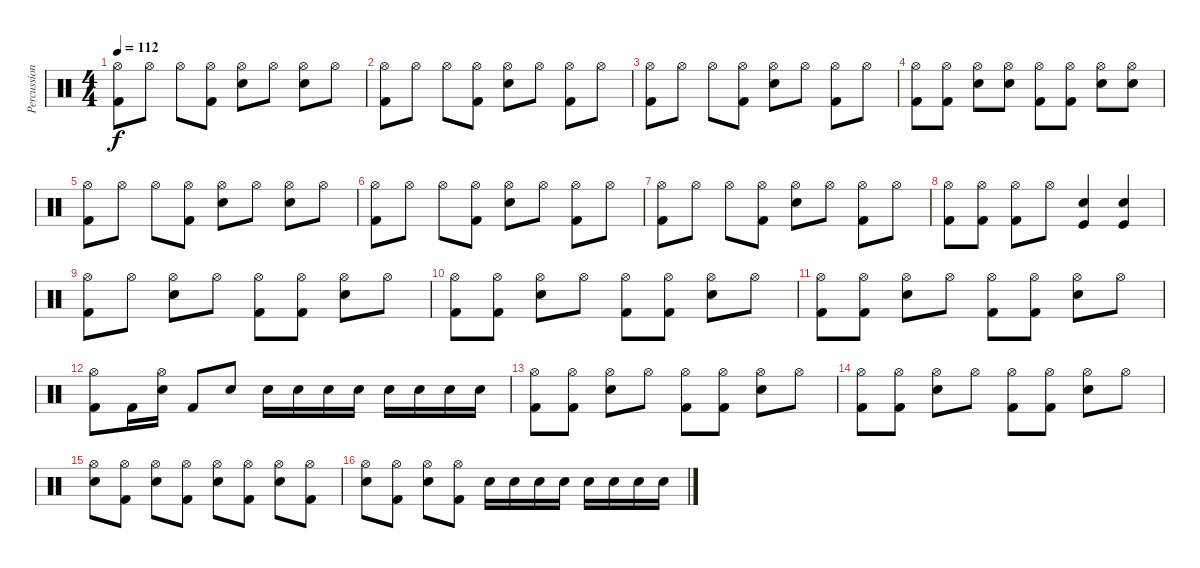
\track ("Percussion" "Percussion") {instrument percussion}
\staff {score}
\articulation defaults
\ts (4 4)
\tempo 112
\clef neutral
\ks c
("Hi-Hat (open)" "Kick (hit) 2").8{dy f} "Hi-Hat (open)".8 "Hi-Hat (open)".8 ("Hi-Hat (open)" "Kick (hit) 2").8 ("Hi-Hat (open)" "Snare (hit) 2").8 "Hi-Hat (open)".8 ("Hi-Hat (open)" "Snare (hit) 2").8 "Hi-Hat (open)".8 |
("Hi-Hat (open)" "Kick (hit) 2").8 "Hi-Hat (open)".8 "Hi-Hat (open)".8 ("Hi-Hat (open)" "Kick (hit) 2").8 ("Hi-Hat (open)" "Snare (hit) 2").8 "Hi-Hat (open)".8 ("Hi-Hat (open)" "Kick (hit) 2").8 "Hi-Hat (open)".8 |
("Hi-Hat (open)" "Kick (hit) 2").8 "Hi-Hat (open)".8 "Hi-Hat (open)".8 ("Hi-Hat (open)" "Kick (hit) 2").8 ("Hi-Hat (open)" "Snare (hit) 2").8 "Hi-Hat (open)".8 ("Hi-Hat (open)" "Kick (hit) 2").8 "Hi-Hat (open)".8 |
("Hi-Hat (open)" "Kick (hit) 2").8 ("Hi-Hat (open)" "Kick (hit) 2").8 ("Hi-Hat (open)" "Snare (hit) 2").8 ("Hi-Hat (open)" "Snare (hit) 2").8 ("Hi-Hat (open)" "Kick (hit) 2").8 ("Hi-Hat (open)" "Kick (hit) 2").8 ("Hi-Hat (open)" "Snare (hit) 2").8 ("Hi-Hat (open)" "Snare (hit) 2").8 |
("Hi-Hat (open)" "Kick (hit) 2").8 "Hi-Hat (open)".8 "Hi-Hat (open)".8 ("Hi-Hat (open)" "Kick (hit) 2").8 ("Hi-Hat (open)" "Snare (hit) 2").8 "Hi-Hat (open)".8 ("Hi-Hat (open)" "Snare (hit) 2").8 "Hi-Hat (open)".8 |
("Hi-Hat (open)" "Kick (hit) 2").8 "Hi-Hat (open)".8 "Hi-Hat (open)".8 ("Hi-Hat (open)" "Kick (hit) 2").8 ("Hi-Hat (open)" "Snare (hit) 2").8 "Hi-Hat (open)".8 ("Hi-Hat (open)" "Kick (hit) 2").8 "Hi-Hat (open)".8 |
("Hi-Hat (open)" "Kick (hit) 2").8 "Hi-Hat (open)".8 "Hi-Hat (open)".8 ("Hi-Hat (open)" "Kick (hit) 2").8 ("Hi-Hat (open)" "Snare (hit) 2").8 "Hi-Hat (open)".8 ("Hi-Hat (open)" "Kick (hit) 2").8 "Hi-Hat (open)".8 |
("Hi-Hat (open)" "Kick (hit) 2").8 ("Hi-Hat (open)" "Kick (hit) 2").8 ("Hi-Hat (open)" "Kick (hit) 2").8 "Hi-Hat (open)".8 ("Snare (hit) 2" "Kick (hit)").4 ("Snare (hit) 2" "Kick (hit)").4 |
("Hi-Hat (open)" "Kick (hit) 2").8 "Hi-Hat (open)".8 ("Hi-Hat (open)" "Snare (hit) 2").8 "Hi-Hat (open)".8 ("Hi-Hat (open)" "Kick (hit) 2").8 ("Hi-Hat (open)" "Kick (hit) 2").8 ("Hi-Hat (open)" "Snare (hit) 2").8 "Hi-Hat (open)".8 |
("Hi-Hat (open)" "Kick (hit) 2").8 ("Hi-Hat (open)" "Kick (hit) 2").8 ("Hi-Hat (open)" "Snare (hit) 2").8 "Hi-Hat (open)".8 ("Hi-Hat (open)" "Kick (hit) 2").8 ("Hi-Hat (open)" "Kick (hit) 2").8 ("Hi-Hat (open)" "Snare (hit) 2").8 "Hi-Hat (open)".8 |
("Hi-Hat (open)" "Kick (hit) 2").8 ("Hi-Hat (open)" "Kick (hit) 2").8 ("Hi-Hat (open)" "Snare (hit) 2").8 "Hi-Hat (open)".8 ("Hi-Hat (open)" "Kick (hit) 2").8 ("Hi-Hat (open)" "Kick (hit) 2").8 ("Hi-Hat (open)" "Snare (hit) 2").8 "Hi-Hat (open)".8 |
("Hi-Hat (open)" "Kick (hit) 2").8 "Kick (hit) 2".16 ("Hi-Hat (open)" "Snare (hit) 2").16 "Kick (hit) 2".8 "Snare (hit) 2".8 "Snare (hit) 2".16 "Snare (hit) 2".16 "Snare (hit) 2".16 "Snare (hit) 2".16 "Snare (hit) 2".16 "Snare (hit) 2".16 "Snare (hit) 2".16 "Snare (hit) 2".16 |
("Hi-Hat (open)" "Kick (hit) 2").8 ("Hi-Hat (open)" "Kick (hit) 2").8 ("Hi-Hat (open)" "Snare (hit) 2").8 "Hi-Hat (open)".8 ("Hi-Hat (open)" "Kick (hit) 2").8 ("Hi-Hat (open)" "Kick (hit) 2").8 ("Hi-Hat (open)" "Snare (hit) 2").8 "Hi-Hat (open)".8 |
("Hi-Hat (open)" "Kick (hit) 2").8 ("Hi-Hat (open)" "Kick (hit) 2").8 ("Hi-Hat (open)" "Snare (hit) 2").8 "Hi-Hat (open)".8 ("Hi-Hat (open)" "Kick (hit) 2").8 ("Hi-Hat (open)" "Kick (hit) 2").8 ("Hi-Hat (open)" "Snare (hit) 2").8 "Hi-Hat (open)".8 |
("Hi-Hat (open)" "Snare (hit) 2").8 ("Hi-Hat (open)" "Kick (hit) 2").8 ("Hi-Hat (open)" "Snare (hit) 2").8 ("Hi-Hat (open)" "Kick (hit) 2").8 ("Hi-Hat (open)" "Snare (hit) 2").8 ("Hi-Hat (open)" "Kick (hit) 2").8 ("Hi-Hat (open)" "Snare (hit) 2").8 ("Hi-Hat (open)" "Kick (hit) 2").8 |
("Hi-Hat (open)" "Snare (hit) 2").8 ("Hi-Hat (open)" "Kick (hit) 2").8 ("Hi-Hat (open)" "Snare (hit) 2").8 ("Hi-Hat (open)" "Kick (hit) 2").8 "Snare (hit) 2".16 "Snare (hit) 2".16 "Snare (hit) 2".16 "Snare (hit) 2".16 "Snare (hit) 2".16 "Snare (hit) 2".16 "Snare (hit) 2".16 "Snare (hit) 2".16
